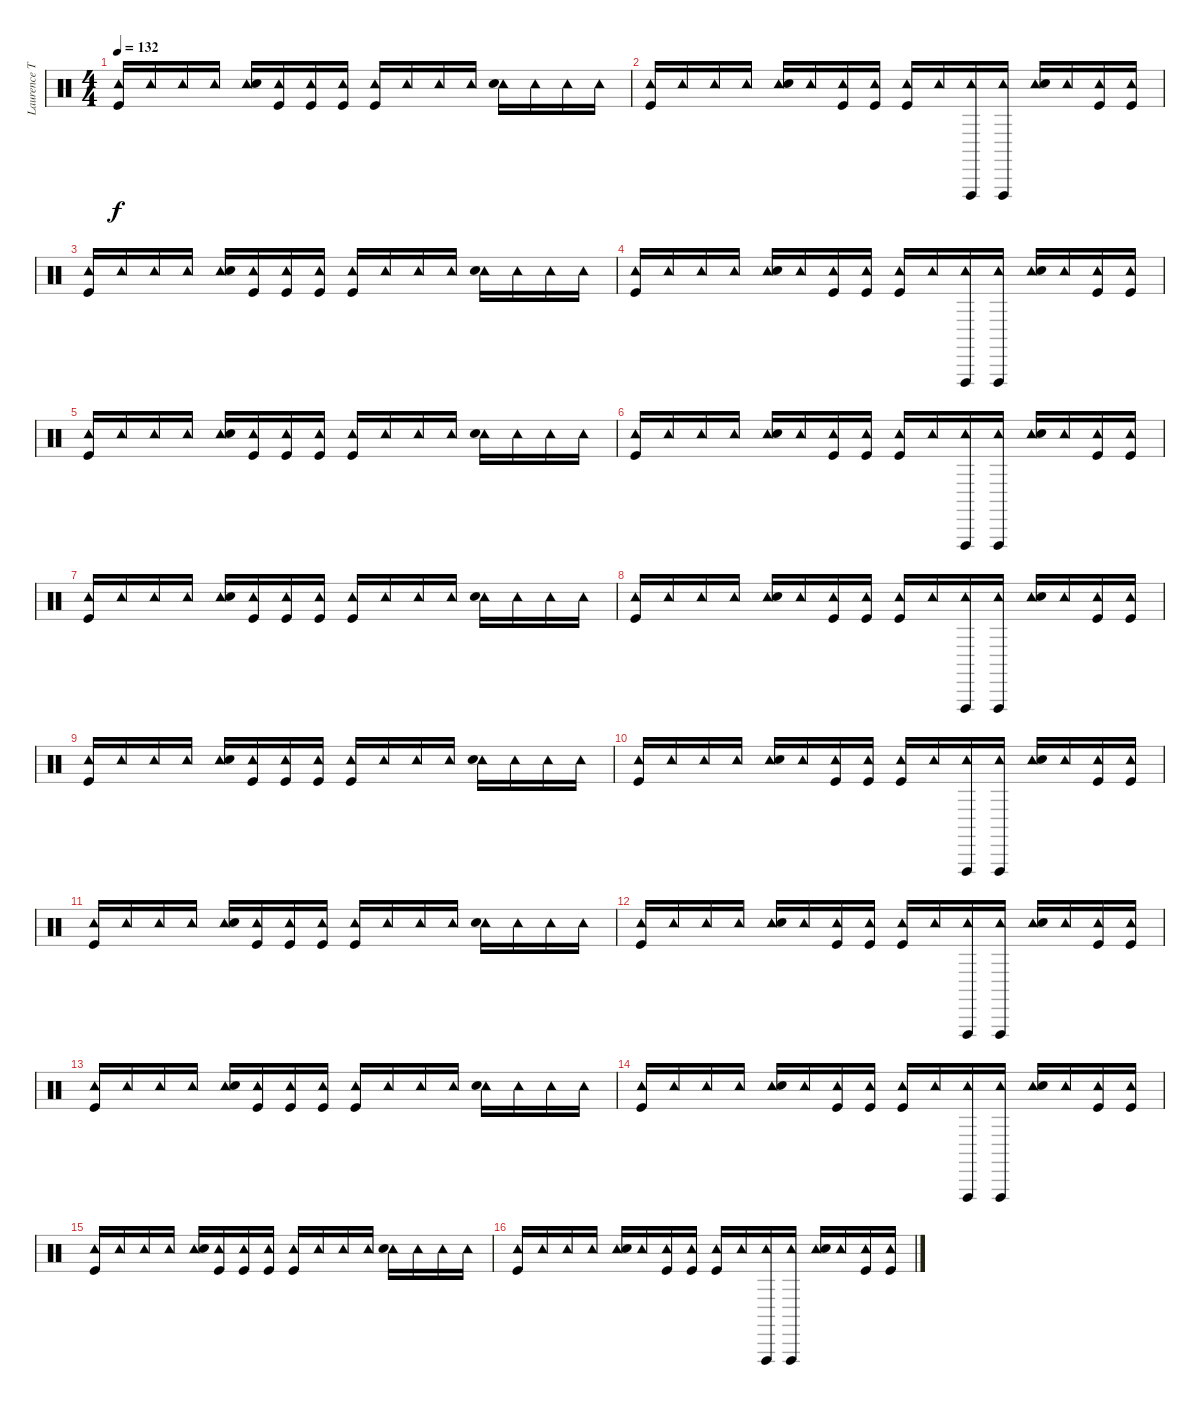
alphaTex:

\track ("Laurence Tolhurst (drums)" "Laurence T") {instrument percussion}
\staff {score}
\articulation defaults
\ts (4 4)
\tempo 132
\clef neutral
\ks c
("Tambourine (hit)" "Kick (hit)").16{dy f} "Tambourine (hit)".16 "Tambourine (hit)".16 "Tambourine (hit)".16 ("Tambourine (hit)" "Snare (hit) 2").16 ("Tambourine (hit)" "Kick (hit)").16 ("Tambourine (hit)" "Kick (hit)").16 ("Tambourine (hit)" "Kick (hit)").16 ("Tambourine (hit)" "Kick (hit)").16 "Tambourine (hit)".16 "Tambourine (hit)".16 "Tambourine (hit)".16 ("Tambourine (hit)" "Snare (hit) 2").16 "Tambourine (hit)".16 "Tambourine (hit)".16 "Tambourine (hit)".16 |
("Tambourine (hit)" "Kick (hit)").16 "Tambourine (hit)".16 "Tambourine (hit)".16 "Tambourine (hit)".16 ("Tambourine (hit)" "Snare (hit) 2").16 "Tambourine (hit)".16 ("Tambourine (hit)" "Kick (hit)").16 ("Tambourine (hit)" "Kick (hit)").16 ("Tambourine (hit)" "Kick (hit)").16 "Tambourine (hit)".16 ("Tambourine (hit)" "Vibraslap (hit)").16 ("Tambourine (hit)" "Vibraslap (hit)").16 ("Tambourine (hit)" "Snare (hit) 2").16 "Tambourine (hit)".16 ("Tambourine (hit)" "Kick (hit)").16 ("Tambourine (hit)" "Kick (hit)").16 |
("Tambourine (hit)" "Kick (hit)").16 "Tambourine (hit)".16 "Tambourine (hit)".16 "Tambourine (hit)".16 ("Tambourine (hit)" "Snare (hit) 2").16 ("Tambourine (hit)" "Kick (hit)").16 ("Tambourine (hit)" "Kick (hit)").16 ("Tambourine (hit)" "Kick (hit)").16 ("Tambourine (hit)" "Kick (hit)").16 "Tambourine (hit)".16 "Tambourine (hit)".16 "Tambourine (hit)".16 ("Tambourine (hit)" "Snare (hit) 2").16 "Tambourine (hit)".16 "Tambourine (hit)".16 "Tambourine (hit)".16 |
("Tambourine (hit)" "Kick (hit)").16 "Tambourine (hit)".16 "Tambourine (hit)".16 "Tambourine (hit)".16 ("Tambourine (hit)" "Snare (hit) 2").16 "Tambourine (hit)".16 ("Tambourine (hit)" "Kick (hit)").16 ("Tambourine (hit)" "Kick (hit)").16 ("Tambourine (hit)" "Kick (hit)").16 "Tambourine (hit)".16 ("Tambourine (hit)" "Vibraslap (hit)").16 ("Tambourine (hit)" "Vibraslap (hit)").16 ("Tambourine (hit)" "Snare (hit) 2").16 "Tambourine (hit)".16 ("Tambourine (hit)" "Kick (hit)").16 ("Tambourine (hit)" "Kick (hit)").16 |
("Tambourine (hit)" "Kick (hit)").16 "Tambourine (hit)".16 "Tambourine (hit)".16 "Tambourine (hit)".16 ("Tambourine (hit)" "Snare (hit) 2").16 ("Tambourine (hit)" "Kick (hit)").16 ("Tambourine (hit)" "Kick (hit)").16 ("Tambourine (hit)" "Kick (hit)").16 ("Tambourine (hit)" "Kick (hit)").16 "Tambourine (hit)".16 "Tambourine (hit)".16 "Tambourine (hit)".16 ("Tambourine (hit)" "Snare (hit) 2").16 "Tambourine (hit)".16 "Tambourine (hit)".16 "Tambourine (hit)".16 |
("Tambourine (hit)" "Kick (hit)").16 "Tambourine (hit)".16 "Tambourine (hit)".16 "Tambourine (hit)".16 ("Tambourine (hit)" "Snare (hit) 2").16 "Tambourine (hit)".16 ("Tambourine (hit)" "Kick (hit)").16 ("Tambourine (hit)" "Kick (hit)").16 ("Tambourine (hit)" "Kick (hit)").16 "Tambourine (hit)".16 ("Tambourine (hit)" "Vibraslap (hit)").16 ("Tambourine (hit)" "Vibraslap (hit)").16 ("Tambourine (hit)" "Snare (hit) 2").16 "Tambourine (hit)".16 ("Tambourine (hit)" "Kick (hit)").16 ("Tambourine (hit)" "Kick (hit)").16 |
("Tambourine (hit)" "Kick (hit)").16 "Tambourine (hit)".16 "Tambourine (hit)".16 "Tambourine (hit)".16 ("Tambourine (hit)" "Snare (hit) 2").16 ("Tambourine (hit)" "Kick (hit)").16 ("Tambourine (hit)" "Kick (hit)").16 ("Tambourine (hit)" "Kick (hit)").16 ("Tambourine (hit)" "Kick (hit)").16 "Tambourine (hit)".16 "Tambourine (hit)".16 "Tambourine (hit)".16 ("Tambourine (hit)" "Snare (hit) 2").16 "Tambourine (hit)".16 "Tambourine (hit)".16 "Tambourine (hit)".16 |
("Tambourine (hit)" "Kick (hit)").16 "Tambourine (hit)".16 "Tambourine (hit)".16 "Tambourine (hit)".16 ("Tambourine (hit)" "Snare (hit) 2").16 "Tambourine (hit)".16 ("Tambourine (hit)" "Kick (hit)").16 ("Tambourine (hit)" "Kick (hit)").16 ("Tambourine (hit)" "Kick (hit)").16 "Tambourine (hit)".16 ("Tambourine (hit)" "Vibraslap (hit)").16 ("Tambourine (hit)" "Vibraslap (hit)").16 ("Tambourine (hit)" "Snare (hit) 2").16 "Tambourine (hit)".16 ("Tambourine (hit)" "Kick (hit)").16 ("Tambourine (hit)" "Kick (hit)").16 |
("Tambourine (hit)" "Kick (hit)").16 "Tambourine (hit)".16 "Tambourine (hit)".16 "Tambourine (hit)".16 ("Tambourine (hit)" "Snare (hit) 2").16 ("Tambourine (hit)" "Kick (hit)").16 ("Tambourine (hit)" "Kick (hit)").16 ("Tambourine (hit)" "Kick (hit)").16 ("Tambourine (hit)" "Kick (hit)").16 "Tambourine (hit)".16 "Tambourine (hit)".16 "Tambourine (hit)".16 ("Tambourine (hit)" "Snare (hit) 2").16 "Tambourine (hit)".16 "Tambourine (hit)".16 "Tambourine (hit)".16 |
("Tambourine (hit)" "Kick (hit)").16 "Tambourine (hit)".16 "Tambourine (hit)".16 "Tambourine (hit)".16 ("Tambourine (hit)" "Snare (hit) 2").16 "Tambourine (hit)".16 ("Tambourine (hit)" "Kick (hit)").16 ("Tambourine (hit)" "Kick (hit)").16 ("Tambourine (hit)" "Kick (hit)").16 "Tambourine (hit)".16 ("Tambourine (hit)" "Vibraslap (hit)").16 ("Tambourine (hit)" "Vibraslap (hit)").16 ("Tambourine (hit)" "Snare (hit) 2").16 "Tambourine (hit)".16 ("Tambourine (hit)" "Kick (hit)").16 ("Tambourine (hit)" "Kick (hit)").16 |
("Tambourine (hit)" "Kick (hit)").16 "Tambourine (hit)".16 "Tambourine (hit)".16 "Tambourine (hit)".16 ("Tambourine (hit)" "Snare (hit) 2").16 ("Tambourine (hit)" "Kick (hit)").16 ("Tambourine (hit)" "Kick (hit)").16 ("Tambourine (hit)" "Kick (hit)").16 ("Tambourine (hit)" "Kick (hit)").16 "Tambourine (hit)".16 "Tambourine (hit)".16 "Tambourine (hit)".16 ("Tambourine (hit)" "Snare (hit) 2").16 "Tambourine (hit)".16 "Tambourine (hit)".16 "Tambourine (hit)".16 |
("Tambourine (hit)" "Kick (hit)").16 "Tambourine (hit)".16 "Tambourine (hit)".16 "Tambourine (hit)".16 ("Tambourine (hit)" "Snare (hit) 2").16 "Tambourine (hit)".16 ("Tambourine (hit)" "Kick (hit)").16 ("Tambourine (hit)" "Kick (hit)").16 ("Tambourine (hit)" "Kick (hit)").16 "Tambourine (hit)".16 ("Tambourine (hit)" "Vibraslap (hit)").16 ("Tambourine (hit)" "Vibraslap (hit)").16 ("Tambourine (hit)" "Snare (hit) 2").16 "Tambourine (hit)".16 ("Tambourine (hit)" "Kick (hit)").16 ("Tambourine (hit)" "Kick (hit)").16 |
("Tambourine (hit)" "Kick (hit)").16 "Tambourine (hit)".16 "Tambourine (hit)".16 "Tambourine (hit)".16 ("Tambourine (hit)" "Snare (hit) 2").16 ("Tambourine (hit)" "Kick (hit)").16 ("Tambourine (hit)" "Kick (hit)").16 ("Tambourine (hit)" "Kick (hit)").16 ("Tambourine (hit)" "Kick (hit)").16 "Tambourine (hit)".16 "Tambourine (hit)".16 "Tambourine (hit)".16 ("Tambourine (hit)" "Snare (hit) 2").16 "Tambourine (hit)".16 "Tambourine (hit)".16 "Tambourine (hit)".16 |
("Tambourine (hit)" "Kick (hit)").16 "Tambourine (hit)".16 "Tambourine (hit)".16 "Tambourine (hit)".16 ("Tambourine (hit)" "Snare (hit) 2").16 "Tambourine (hit)".16 ("Tambourine (hit)" "Kick (hit)").16 ("Tambourine (hit)" "Kick (hit)").16 ("Tambourine (hit)" "Kick (hit)").16 "Tambourine (hit)".16 ("Tambourine (hit)" "Vibraslap (hit)").16 ("Tambourine (hit)" "Vibraslap (hit)").16 ("Tambourine (hit)" "Snare (hit) 2").16 "Tambourine (hit)".16 ("Tambourine (hit)" "Kick (hit)").16 ("Tambourine (hit)" "Kick (hit)").16 |
("Tambourine (hit)" "Kick (hit)").16 "Tambourine (hit)".16 "Tambourine (hit)".16 "Tambourine (hit)".16 ("Tambourine (hit)" "Snare (hit) 2").16 ("Tambourine (hit)" "Kick (hit)").16 ("Tambourine (hit)" "Kick (hit)").16 ("Tambourine (hit)" "Kick (hit)").16 ("Tambourine (hit)" "Kick (hit)").16 "Tambourine (hit)".16 "Tambourine (hit)".16 "Tambourine (hit)".16 ("Tambourine (hit)" "Snare (hit) 2").16 "Tambourine (hit)".16 "Tambourine (hit)".16 "Tambourine (hit)".16 |
("Tambourine (hit)" "Kick (hit)").16 "Tambourine (hit)".16 "Tambourine (hit)".16 "Tambourine (hit)".16 ("Tambourine (hit)" "Snare (hit) 2").16 "Tambourine (hit)".16 ("Tambourine (hit)" "Kick (hit)").16 ("Tambourine (hit)" "Kick (hit)").16 ("Tambourine (hit)" "Kick (hit)").16 "Tambourine (hit)".16 ("Tambourine (hit)" "Vibraslap (hit)").16 ("Tambourine (hit)" "Vibraslap (hit)").16 ("Tambourine (hit)" "Snare (hit) 2").16 "Tambourine (hit)".16 ("Tambourine (hit)" "Kick (hit)").16 ("Tambourine (hit)" "Kick (hit)").16
